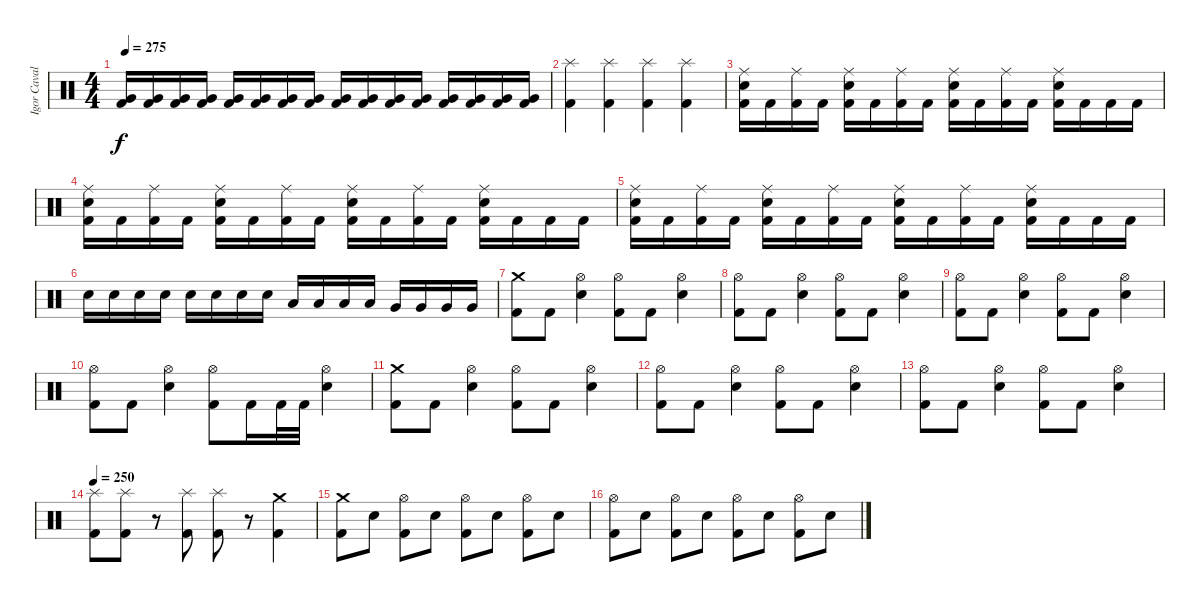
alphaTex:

\track ("Igor Cavalera" "Igor Caval") {instrument percussion}
\staff {score}
\articulation defaults
\ts (4 4)
\tempo 275
\clef neutral
\ks c
("Kick (hit) 2" "Very Low Tom (hit)").16{dy f} ("Kick (hit) 2" "Very Low Tom (hit)").16 ("Kick (hit) 2" "Very Low Tom (hit)").16 ("Kick (hit) 2" "Very Low Tom (hit)").16 ("Kick (hit) 2" "Very Low Tom (hit)").16 ("Kick (hit) 2" "Very Low Tom (hit)").16 ("Kick (hit) 2" "Very Low Tom (hit)").16 ("Kick (hit) 2" "Very Low Tom (hit)").16 ("Kick (hit) 2" "Very Low Tom (hit)").16 ("Kick (hit) 2" "Very Low Tom (hit)").16 ("Kick (hit) 2" "Very Low Tom (hit)").16 ("Kick (hit) 2" "Very Low Tom (hit)").16 ("Kick (hit) 2" "Very Low Tom (hit)").16 ("Kick (hit) 2" "Very Low Tom (hit)").16 ("Kick (hit) 2" "Very Low Tom (hit)").16 ("Kick (hit) 2" "Very Low Tom (hit)").16 |
("Splash (hit)" "Kick (hit) 2").4 ("Splash (hit)" "Kick (hit) 2").4 ("Splash (hit)" "Kick (hit) 2").4 ("Splash (hit)" "Kick (hit) 2").4 |
("Electric Snare (hit)" "Kick (hit) 2" "Ride (middle)").16 "Kick (hit) 2".16 ("Kick (hit) 2" "Ride (middle)").16 "Kick (hit) 2".16 ("Electric Snare (hit)" "Kick (hit) 2" "Ride (middle)").16 "Kick (hit) 2".16 ("Kick (hit) 2" "Ride (middle)").16 "Kick (hit) 2".16 ("Electric Snare (hit)" "Kick (hit) 2" "Ride (middle)").16 "Kick (hit) 2".16 ("Kick (hit) 2" "Ride (middle)").16 "Kick (hit) 2".16 ("Electric Snare (hit)" "Kick (hit) 2" "Ride (middle)").16 "Kick (hit) 2".16 "Kick (hit) 2".16 "Kick (hit) 2".16 |
("Electric Snare (hit)" "Kick (hit) 2" "Ride (middle)").16 "Kick (hit) 2".16 ("Kick (hit) 2" "Ride (middle)").16 "Kick (hit) 2".16 ("Electric Snare (hit)" "Kick (hit) 2" "Ride (middle)").16 "Kick (hit) 2".16 ("Kick (hit) 2" "Ride (middle)").16 "Kick (hit) 2".16 ("Electric Snare (hit)" "Kick (hit) 2" "Ride (middle)").16 "Kick (hit) 2".16 ("Kick (hit) 2" "Ride (middle)").16 "Kick (hit) 2".16 ("Electric Snare (hit)" "Kick (hit) 2" "Ride (middle)").16 "Kick (hit) 2".16 "Kick (hit) 2".16 "Kick (hit) 2".16 |
("Electric Snare (hit)" "Kick (hit) 2" "Ride (middle)").16 "Kick (hit) 2".16 ("Kick (hit) 2" "Ride (middle)").16 "Kick (hit) 2".16 ("Electric Snare (hit)" "Kick (hit) 2" "Ride (middle)").16 "Kick (hit) 2".16 ("Kick (hit) 2" "Ride (middle)").16 "Kick (hit) 2".16 ("Electric Snare (hit)" "Kick (hit) 2" "Ride (middle)").16 "Kick (hit) 2".16 ("Kick (hit) 2" "Ride (middle)").16 "Kick (hit) 2".16 ("Electric Snare (hit)" "Kick (hit) 2" "Ride (middle)").16 "Kick (hit) 2".16 "Kick (hit) 2".16 "Kick (hit) 2".16 |
"Electric Snare (hit)".16 "Electric Snare (hit)".16 "Electric Snare (hit)".16 "Electric Snare (hit)".16 "Electric Snare (hit)".16 "Electric Snare (hit)".16 "Electric Snare (hit)".16 "Electric Snare (hit)".16 "Low Tom (hit)".16 "Low Tom (hit)".16 "Low Tom (hit)".16 "Low Tom (hit)".16 "Very Low Tom (hit)".16 "Very Low Tom (hit)".16 "Very Low Tom (hit)".16 "Very Low Tom (hit)".16 |
("Kick (hit) 2" "Crash medium (hit)").8 "Kick (hit) 2".8 ("Electric Snare (hit)" "Hi-Hat (open)").4 ("Kick (hit) 2" "Hi-Hat (open)").8 "Kick (hit) 2".8 ("Electric Snare (hit)" "Hi-Hat (open)").4 |
("Kick (hit) 2" "Hi-Hat (open)").8 "Kick (hit) 2".8 ("Electric Snare (hit)" "Hi-Hat (open)").4 ("Kick (hit) 2" "Hi-Hat (open)").8 "Kick (hit) 2".8 ("Electric Snare (hit)" "Hi-Hat (open)").4 |
("Kick (hit) 2" "Hi-Hat (open)").8 "Kick (hit) 2".8 ("Electric Snare (hit)" "Hi-Hat (open)").4 ("Kick (hit) 2" "Hi-Hat (open)").8 "Kick (hit) 2".8 ("Electric Snare (hit)" "Hi-Hat (open)").4 |
("Kick (hit) 2" "Hi-Hat (open)").8 "Kick (hit) 2".8 ("Electric Snare (hit)" "Hi-Hat (open)").4 ("Kick (hit) 2" "Hi-Hat (open)").8 "Kick (hit) 2".16 "Kick (hit) 2".32 "Kick (hit) 2".32 ("Hi-Hat (open)" "Electric Snare (hit)").4 |
("Kick (hit) 2" "Crash medium (hit)").8 "Kick (hit) 2".8 ("Electric Snare (hit)" "Hi-Hat (open)").4 ("Kick (hit) 2" "Hi-Hat (open)").8 "Kick (hit) 2".8 ("Electric Snare (hit)" "Hi-Hat (open)").4 |
("Kick (hit) 2" "Hi-Hat (open)").8 "Kick (hit) 2".8 ("Electric Snare (hit)" "Hi-Hat (open)").4 ("Kick (hit) 2" "Hi-Hat (open)").8 "Kick (hit) 2".8 ("Electric Snare (hit)" "Hi-Hat (open)").4 |
("Kick (hit) 2" "Hi-Hat (open)").8 "Kick (hit) 2".8 ("Electric Snare (hit)" "Hi-Hat (open)").4 ("Kick (hit) 2" "Hi-Hat (open)").8 "Kick (hit) 2".8 ("Electric Snare (hit)" "Hi-Hat (open)").4 |
\tempo 250
("Kick (hit) 2" "Splash (hit)").8 ("Kick (hit) 2" "Splash (hit)").8 r.8 ("Kick (hit) 2" "Splash (hit)").8 ("Kick (hit) 2" "Splash (hit)").8 r.8 ("Kick (hit) 2" "Crash medium (hit)").4 |
("Crash medium (hit)" "Kick (hit) 2").8 "Electric Snare (hit)".8 ("Hi-Hat (open)" "Kick (hit) 2").8 "Electric Snare (hit)".8 ("Hi-Hat (open)" "Kick (hit) 2").8 "Electric Snare (hit)".8 ("Hi-Hat (open)" "Kick (hit) 2").8 "Electric Snare (hit)".8 |
("Hi-Hat (open)" "Kick (hit) 2").8 "Electric Snare (hit)".8 ("Hi-Hat (open)" "Kick (hit) 2").8 "Electric Snare (hit)".8 ("Hi-Hat (open)" "Kick (hit) 2").8 "Electric Snare (hit)".8 ("Hi-Hat (open)" "Kick (hit) 2").8 "Electric Snare (hit)".8
